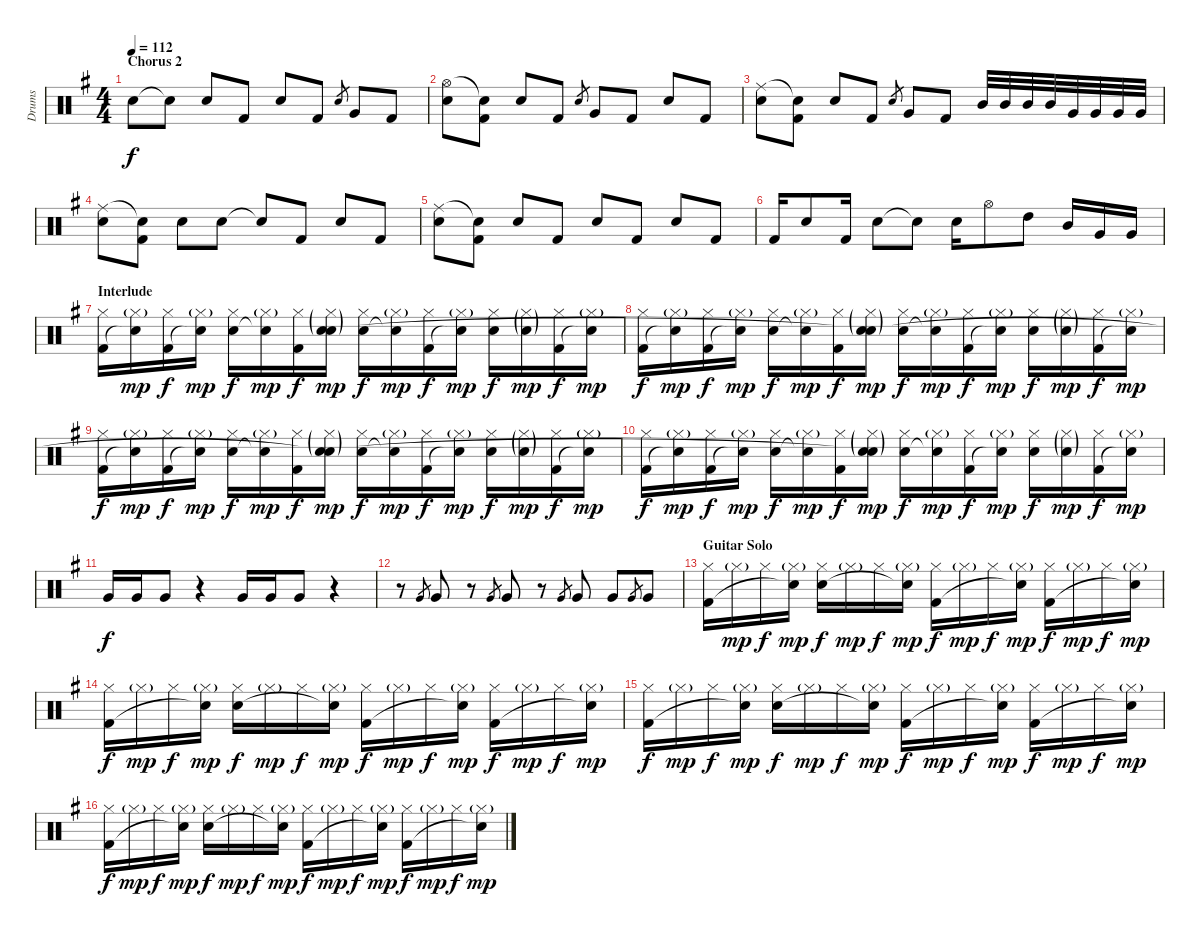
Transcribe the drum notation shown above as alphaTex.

\track ("Drums" "Drums") {instrument percussion}
\staff {score}
\articulation defaults
\ts (4 4)
\section ("" "Chorus 2")
\tempo 112
\clef neutral
\ks g "Electric Snare (hit)".8{dy f} "Snare (hit)"{t}.8 "Electric Snare (hit)".8 "Kick (hit) 2".8 "Electric Snare (hit)".8 "Kick (hit) 2".8 "Electric Snare (hit)".8{gr} "Very Low Tom (hit)".8 "Kick (hit) 2".8
|
("Hi-Hat (open)" "Electric Snare (hit)").8 ("Snare (hit)"{t} "Kick (hit) 2").8 "Electric Snare (hit)".8 "Kick (hit) 2".8 "Electric Snare (hit)".8{gr} "Very Low Tom (hit)".8 "Kick (hit) 2".8 "Electric Snare (hit)".8 "Kick (hit) 2".8 |
("Ride (middle)" "Electric Snare (hit)").8 ("Snare (hit)"{t} "Kick (hit) 2").8 "Electric Snare (hit)".8 "Kick (hit) 2".8 "Electric Snare (hit)".8{gr} "Very Low Tom (hit)".8 "Kick (hit) 2".8 "Mid Tom (hit)".32 "Mid Tom (hit)".32 "Mid Tom (hit)".32 "Mid Tom (hit)".32 "Very Low Tom (hit)".32 "Very Low Tom (hit)".32 "Very Low Tom (hit)".32 "Very Low Tom (hit)".32 |
("Ride (middle)" "Electric Snare (hit)").8 ("Snare (hit)"{t} "Kick (hit) 2").8 "Electric Snare (hit)".8 "Electric Snare (hit)".8 "Electric Snare (hit)"{t}.8 "Kick (hit) 2".8 "Electric Snare (hit)".8 "Kick (hit) 2".8 |
("Ride (middle)" "Electric Snare (hit)").8 ("Snare (hit)"{t} "Kick (hit) 2").8 "Electric Snare (hit)".8 "Kick (hit) 2".8 "Electric Snare (hit)".8 "Kick (hit) 2".8 "Electric Snare (hit)".8 "Kick (hit) 2".8 |
"Kick (hit) 2".16 "Electric Snare (hit)".8 "Kick (hit) 2".16 "Electric Snare (hit)".8 "Electric Snare (hit)"{t}.8 "Electric Snare (hit)".16 "Hi-Hat (open)".8 "High Tom (hit)".8 "Mid Tom (hit)".16 "Very Low Tom (hit)".16 "Very Low Tom (hit)".16 |
\section ("" "Interlude")
("Hi-Hat (closed)" "Kick (hit) 2").16 ("Hi-Hat (closed)"{g} "Snare (hit)"{t}).16{dy mp} ("Hi-Hat (closed)" "Kick (hit) 2").16{dy f} ("Hi-Hat (closed)"{g} "Snare (hit)"{t}).16{dy mp} ("Hi-Hat (closed)" "Electric Snare (hit)").16{dy f} ("Hi-Hat (closed)"{g} "Snare (hit)"{t}).16{dy mp} ("Hi-Hat (closed)" "Kick (hit) 2").16{dy f} ("Hi-Hat (closed)"{g} "Electric Snare (hit)"{g} "Snare (hit)").16{dy mp} ("Hi-Hat (closed)" "Electric Snare (hit)").16{dy f} ("Hi-Hat (closed)"{g} "Electric Snare (hit)"{t}).16{dy mp} ("Hi-Hat (closed)" "Kick (hit) 2").16{dy f} ("Hi-Hat (closed)"{g} "Snare (hit)"{t}).16{dy mp} ("Hi-Hat (closed)" "Electric Snare (hit)").16{dy f} ("Hi-Hat (closed)"{g} "Electric Snare (hit)"{g}).16{dy mp} ("Hi-Hat (closed)" "Kick (hit) 2").16{dy f} ("Hi-Hat (closed)"{g} "Snare (hit)"{t}).16{dy mp} |
("Hi-Hat (closed)" "Kick (hit) 2").16{dy f} ("Hi-Hat (closed)"{g} "Snare (hit)"{t}).16{dy mp} ("Hi-Hat (closed)" "Kick (hit) 2").16{dy f} ("Hi-Hat (closed)"{g} "Snare (hit)"{t}).16{dy mp} ("Hi-Hat (closed)" "Electric Snare (hit)").16{dy f} ("Hi-Hat (closed)"{g} "Snare (hit)"{t}).16{dy mp} ("Hi-Hat (closed)" "Kick (hit) 2").16{dy f} ("Hi-Hat (closed)"{g} "Electric Snare (hit)"{g} "Snare (hit)"{t}).16{dy mp} ("Hi-Hat (closed)" "Electric Snare (hit)").16{dy f} ("Hi-Hat (closed)"{g} "Electric Snare (hit)"{t}).16{dy mp} ("Hi-Hat (closed)" "Kick (hit) 2").16{dy f} ("Hi-Hat (closed)"{g} "Snare (hit)"{t}).16{dy mp} ("Hi-Hat (closed)" "Electric Snare (hit)").16{dy f} ("Hi-Hat (closed)"{g} "Electric Snare (hit)"{g}).16{dy mp} ("Hi-Hat (closed)" "Kick (hit) 2").16{dy f} ("Hi-Hat (closed)"{g} "Snare (hit)"{t}).16{dy mp} |
("Hi-Hat (closed)" "Kick (hit) 2").16{dy f} ("Hi-Hat (closed)"{g} "Snare (hit)"{t}).16{dy mp} ("Hi-Hat (closed)" "Kick (hit) 2").16{dy f} ("Hi-Hat (closed)"{g} "Snare (hit)"{t}).16{dy mp} ("Hi-Hat (closed)" "Electric Snare (hit)").16{dy f} ("Hi-Hat (closed)"{g} "Snare (hit)"{t}).16{dy mp} ("Hi-Hat (closed)" "Kick (hit) 2").16{dy f} ("Hi-Hat (closed)"{g} "Electric Snare (hit)"{g} "Snare (hit)"{t}).16{dy mp} ("Hi-Hat (closed)" "Electric Snare (hit)").16{dy f} ("Hi-Hat (closed)"{g} "Electric Snare (hit)"{t}).16{dy mp} ("Hi-Hat (closed)" "Kick (hit) 2").16{dy f} ("Hi-Hat (closed)"{g} "Snare (hit)"{t}).16{dy mp} ("Hi-Hat (closed)" "Electric Snare (hit)").16{dy f} ("Hi-Hat (closed)"{g} "Electric Snare (hit)"{g}).16{dy mp} ("Hi-Hat (closed)" "Kick (hit) 2").16{dy f} ("Hi-Hat (closed)"{g} "Snare (hit)"{t}).16{dy mp} |
("Hi-Hat (closed)" "Kick (hit) 2").16{dy f} ("Hi-Hat (closed)"{g} "Snare (hit)"{t}).16{dy mp} ("Hi-Hat (closed)" "Kick (hit) 2").16{dy f} ("Hi-Hat (closed)"{g} "Snare (hit)"{t}).16{dy mp} ("Hi-Hat (closed)" "Electric Snare (hit)").16{dy f} ("Hi-Hat (closed)"{g} "Snare (hit)"{t}).16{dy mp} ("Hi-Hat (closed)" "Kick (hit) 2").16{dy f} ("Hi-Hat (closed)"{g} "Electric Snare (hit)"{g} "Snare (hit)"{t}).16{dy mp} ("Hi-Hat (closed)" "Electric Snare (hit)").16{dy f} ("Hi-Hat (closed)"{g} "Electric Snare (hit)"{t}).16{dy mp} ("Hi-Hat (closed)" "Kick (hit) 2").16{dy f} ("Hi-Hat (closed)"{g} "Snare (hit)"{t}).16{dy mp} ("Hi-Hat (closed)" "Electric Snare (hit)").16{dy f} ("Hi-Hat (closed)"{g} "Electric Snare (hit)"{g}).16{dy mp} ("Hi-Hat (closed)" "Kick (hit) 2").16{dy f} ("Hi-Hat (closed)"{g} "Snare (hit)"{t}).16{dy mp} |
"Very Low Tom (hit)".16{dy f} "Very Low Tom (hit)".16 "Very Low Tom (hit)".8 r.4 "Very Low Tom (hit)".16 "Very Low Tom (hit)".16 "Very Low Tom (hit)".8 r.4 |
r.8 "Very Low Tom (hit)".8{gr} "Very Low Tom (hit)".8 r.8 "Very Low Tom (hit)".8{gr} "Very Low Tom (hit)".8 r.8 "Very Low Tom (hit)".8{gr} "Very Low Tom (hit)".8 "Very Low Tom (hit)".8 "Very Low Tom (hit)".8{gr} "Very Low Tom (hit)".8 |
\section ("" "Guitar Solo")
("Hi-Hat (closed)" "Kick (hit) 2").16 "Hi-Hat (closed)"{g}.16{dy mp} "Hi-Hat (closed)".16{dy f} ("Hi-Hat (closed)"{g} "Snare (hit)"{t}).16{dy mp} ("Hi-Hat (closed)" "Electric Snare (hit)").16{dy f} "Hi-Hat (closed)"{g}.16{dy mp} "Hi-Hat (closed)".16{dy f} ("Hi-Hat (closed)"{g} "Snare (hit)"{t}).16{dy mp} ("Hi-Hat (closed)" "Kick (hit) 2").16{dy f} "Hi-Hat (closed)"{g}.16{dy mp} "Hi-Hat (closed)".16{dy f} ("Hi-Hat (closed)"{g} "Snare (hit)"{t}).16{dy mp} ("Hi-Hat (closed)" "Kick (hit) 2").16{dy f} "Hi-Hat (closed)"{g}.16{dy mp} "Hi-Hat (closed)".16{dy f} ("Hi-Hat (closed)"{g} "Snare (hit)"{t}).16{dy mp} |
("Hi-Hat (closed)" "Kick (hit) 2").16{dy f} "Hi-Hat (closed)"{g}.16{dy mp} "Hi-Hat (closed)".16{dy f} ("Hi-Hat (closed)"{g} "Snare (hit)"{t}).16{dy mp} ("Hi-Hat (closed)" "Electric Snare (hit)").16{dy f} "Hi-Hat (closed)"{g}.16{dy mp} "Hi-Hat (closed)".16{dy f} ("Hi-Hat (closed)"{g} "Snare (hit)"{t}).16{dy mp} ("Hi-Hat (closed)" "Kick (hit) 2").16{dy f} "Hi-Hat (closed)"{g}.16{dy mp} "Hi-Hat (closed)".16{dy f} ("Hi-Hat (closed)"{g} "Snare (hit)"{t}).16{dy mp} ("Hi-Hat (closed)" "Kick (hit) 2").16{dy f} "Hi-Hat (closed)"{g}.16{dy mp} "Hi-Hat (closed)".16{dy f} ("Hi-Hat (closed)"{g} "Snare (hit)"{t}).16{dy mp} |
("Hi-Hat (closed)" "Kick (hit) 2").16{dy f} "Hi-Hat (closed)"{g}.16{dy mp} "Hi-Hat (closed)".16{dy f} ("Hi-Hat (closed)"{g} "Snare (hit)"{t}).16{dy mp} ("Hi-Hat (closed)" "Electric Snare (hit)").16{dy f} "Hi-Hat (closed)"{g}.16{dy mp} "Hi-Hat (closed)".16{dy f} ("Hi-Hat (closed)"{g} "Snare (hit)"{t}).16{dy mp} ("Hi-Hat (closed)" "Kick (hit) 2").16{dy f} "Hi-Hat (closed)"{g}.16{dy mp} "Hi-Hat (closed)".16{dy f} ("Hi-Hat (closed)"{g} "Snare (hit)"{t}).16{dy mp} ("Hi-Hat (closed)" "Kick (hit) 2").16{dy f} "Hi-Hat (closed)"{g}.16{dy mp} "Hi-Hat (closed)".16{dy f} ("Hi-Hat (closed)"{g} "Snare (hit)"{t}).16{dy mp} |
("Hi-Hat (closed)" "Kick (hit) 2").16{dy f} "Hi-Hat (closed)"{g}.16{dy mp} "Hi-Hat (closed)".16{dy f} ("Hi-Hat (closed)"{g} "Snare (hit)"{t}).16{dy mp} ("Hi-Hat (closed)" "Electric Snare (hit)").16{dy f} "Hi-Hat (closed)"{g}.16{dy mp} "Hi-Hat (closed)".16{dy f} ("Hi-Hat (closed)"{g} "Snare (hit)"{t}).16{dy mp} ("Hi-Hat (closed)" "Kick (hit) 2").16{dy f} "Hi-Hat (closed)"{g}.16{dy mp} "Hi-Hat (closed)".16{dy f} ("Hi-Hat (closed)"{g} "Snare (hit)"{t}).16{dy mp} ("Hi-Hat (closed)" "Kick (hit) 2").16{dy f} "Hi-Hat (closed)"{g}.16{dy mp} "Hi-Hat (closed)".16{dy f} ("Hi-Hat (closed)"{g} "Snare (hit)"{t}).16{dy mp}
